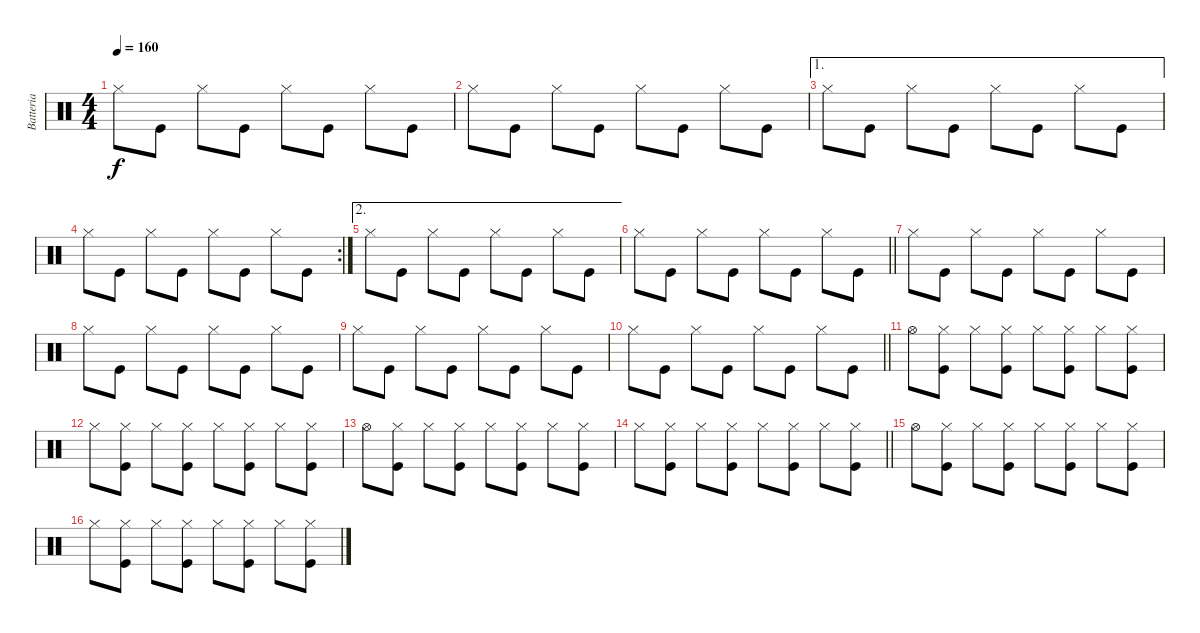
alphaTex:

\track ("Batteria" "Batteria") {instrument percussion}
\staff {score}
\articulation defaults
\ts (4 4)
\tempo 160
\clef neutral
\ks c "Hi-Hat (closed)".8{dy f} "Kick (hit)".8 "Hi-Hat (closed)".8 "Kick (hit)".8 "Hi-Hat (closed)".8 "Kick (hit)".8 "Hi-Hat (closed)".8 "Kick (hit)".8
|
"Hi-Hat (closed)".8 "Kick (hit)".8 "Hi-Hat (closed)".8 "Kick (hit)".8 "Hi-Hat (closed)".8 "Kick (hit)".8 "Hi-Hat (closed)".8 "Kick (hit)".8 |
\ae 1 "Hi-Hat (closed)".8 "Kick (hit)".8 "Hi-Hat (closed)".8 "Kick (hit)".8 "Hi-Hat (closed)".8 "Kick (hit)".8 "Hi-Hat (closed)".8 "Kick (hit)".8
|
\rc 2 "Hi-Hat (closed)".8 "Kick (hit)".8 "Hi-Hat (closed)".8 "Kick (hit)".8 "Hi-Hat (closed)".8 "Kick (hit)".8 "Hi-Hat (closed)".8 "Kick (hit)".8
|
\ae 2 "Hi-Hat (closed)".8 "Kick (hit)".8 "Hi-Hat (closed)".8 "Kick (hit)".8 "Hi-Hat (closed)".8 "Kick (hit)".8 "Hi-Hat (closed)".8 "Kick (hit)".8
|
\barLineRight lightlight "Hi-Hat (closed)".8 "Kick (hit)".8 "Hi-Hat (closed)".8 "Kick (hit)".8 "Hi-Hat (closed)".8 "Kick (hit)".8 "Hi-Hat (closed)".8 "Kick (hit)".8
|
"Hi-Hat (closed)".8 "Kick (hit)".8 "Hi-Hat (closed)".8 "Kick (hit)".8 "Hi-Hat (closed)".8 "Kick (hit)".8 "Hi-Hat (closed)".8 "Kick (hit)".8 |
"Hi-Hat (closed)".8 "Kick (hit)".8 "Hi-Hat (closed)".8 "Kick (hit)".8 "Hi-Hat (closed)".8 "Kick (hit)".8 "Hi-Hat (closed)".8 "Kick (hit)".8 |
"Hi-Hat (closed)".8 "Kick (hit)".8 "Hi-Hat (closed)".8 "Kick (hit)".8 "Hi-Hat (closed)".8 "Kick (hit)".8 "Hi-Hat (closed)".8 "Kick (hit)".8 |
\barLineRight lightlight "Hi-Hat (closed)".8 "Kick (hit)".8 "Hi-Hat (closed)".8 "Kick (hit)".8 "Hi-Hat (closed)".8 "Kick (hit)".8 "Hi-Hat (closed)".8 "Kick (hit)".8
|
"Hi-Hat (open)".8 ("Kick (hit)" "Hi-Hat (closed)").8 "Hi-Hat (closed)".8 ("Kick (hit)" "Hi-Hat (closed)").8 "Hi-Hat (closed)".8 ("Kick (hit)" "Hi-Hat (closed)").8 "Hi-Hat (closed)".8 ("Kick (hit)" "Hi-Hat (closed)").8 |
"Hi-Hat (closed)".8 ("Kick (hit)" "Hi-Hat (closed)").8 "Hi-Hat (closed)".8 ("Kick (hit)" "Hi-Hat (closed)").8 "Hi-Hat (closed)".8 ("Kick (hit)" "Hi-Hat (closed)").8 "Hi-Hat (closed)".8 ("Kick (hit)" "Hi-Hat (closed)").8 |
"Hi-Hat (open)".8 ("Kick (hit)" "Hi-Hat (closed)").8 "Hi-Hat (closed)".8 ("Kick (hit)" "Hi-Hat (closed)").8 "Hi-Hat (closed)".8 ("Kick (hit)" "Hi-Hat (closed)").8 "Hi-Hat (closed)".8 ("Kick (hit)" "Hi-Hat (closed)").8 |
\barLineRight lightlight "Hi-Hat (closed)".8
("Kick (hit)" "Hi-Hat (closed)").8 "Hi-Hat (closed)".8 ("Kick (hit)" "Hi-Hat (closed)").8 "Hi-Hat (closed)".8 ("Kick (hit)" "Hi-Hat (closed)").8 "Hi-Hat (closed)".8 ("Kick (hit)" "Hi-Hat (closed)").8 |
"Hi-Hat (open)".8 ("Kick (hit)" "Hi-Hat (closed)").8 "Hi-Hat (closed)".8 ("Kick (hit)" "Hi-Hat (closed)").8 "Hi-Hat (closed)".8 ("Kick (hit)" "Hi-Hat (closed)").8 "Hi-Hat (closed)".8 ("Kick (hit)" "Hi-Hat (closed)").8 |
"Hi-Hat (closed)".8 ("Kick (hit)" "Hi-Hat (closed)").8 "Hi-Hat (closed)".8 ("Kick (hit)" "Hi-Hat (closed)").8 "Hi-Hat (closed)".8 ("Kick (hit)" "Hi-Hat (closed)").8 "Hi-Hat (closed)".8 ("Kick (hit)" "Hi-Hat (closed)").8
